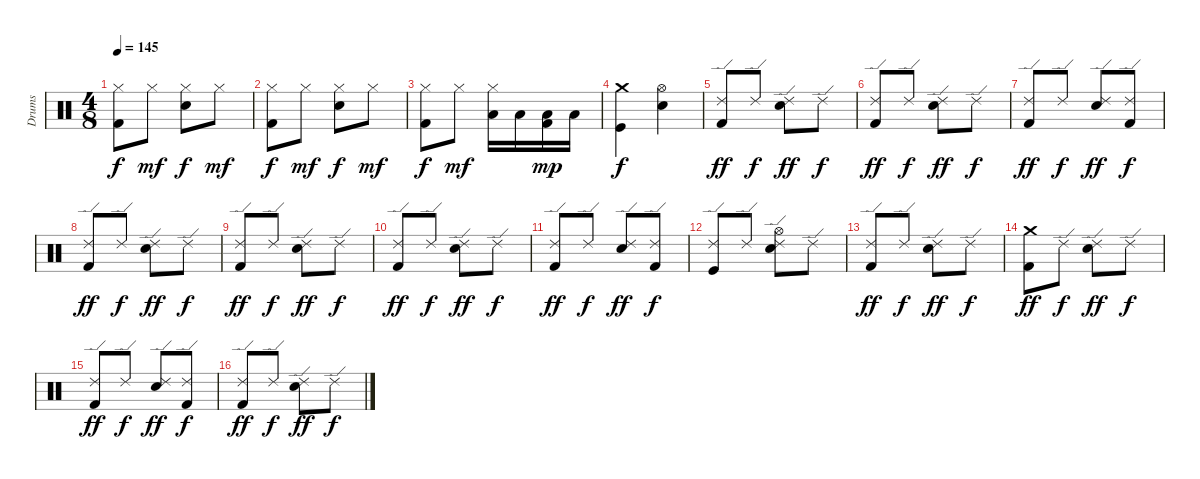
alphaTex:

\track ("Drums" "Drums") {instrument percussion}
\staff {score}
\articulation defaults
\ts (4 8)
\tempo 145
\clef neutral
\ks c
("Hi-Hat (closed)" "Kick (hit) 2").8{dy f} "Hi-Hat (closed)".8{dy mf} ("Hi-Hat (closed)" "Snare (hit) 2").8{dy f} "Hi-Hat (closed)".8{dy mf} |
("Hi-Hat (closed)" "Kick (hit) 2").8{dy f} "Hi-Hat (closed)".8{dy mf} ("Hi-Hat (closed)" "Snare (hit) 2").8{dy f} "Hi-Hat (closed)".8{dy mf} |
("Hi-Hat (closed)" "Kick (hit) 2").8{dy f} "Hi-Hat (closed)".8{dy mf} ("Low Tom (hit)" "Hi-Hat (closed)").16 "Low Tom (hit)".16 ("Low Floor Tom (hit)" "Kick (hit) 2").16{dy mp} "Low Floor Tom (hit)".16 |
("Crash medium (hit)" "Kick (hit)").4{dy f} ("Hi-Hat (open)" "Snare (hit) 2").4 |
("Ride (edge) 2" "Kick (hit) 2").8{dy ff} "Ride (edge) 2".8{dy f} ("Ride (edge) 2" "Snare (hit) 2").8{dy ff} "Ride (edge) 2".8{dy f} |
("Ride (edge) 2" "Kick (hit) 2").8{dy ff} "Ride (edge) 2".8{dy f} ("Ride (edge) 2" "Snare (hit) 2").8{dy ff} "Ride (edge) 2".8{dy f} |
("Ride (edge) 2" "Kick (hit) 2").8{dy ff} "Ride (edge) 2".8{dy f} ("Ride (edge) 2" "Snare (hit) 2").8{dy ff} ("Ride (edge) 2" "Kick (hit) 2").8{dy f} |
("Ride (edge) 2" "Kick (hit) 2").8{dy ff} "Ride (edge) 2".8{dy f} ("Ride (edge) 2" "Snare (hit) 2").8{dy ff} "Ride (edge) 2".8{dy f} |
("Ride (edge) 2" "Kick (hit) 2").8{dy ff} "Ride (edge) 2".8{dy f} ("Ride (edge) 2" "Snare (hit) 2").8{dy ff} "Ride (edge) 2".8{dy f} |
("Ride (edge) 2" "Kick (hit) 2").8{dy ff} "Ride (edge) 2".8{dy f} ("Ride (edge) 2" "Snare (hit) 2").8{dy ff} "Ride (edge) 2".8{dy f} |
("Ride (edge) 2" "Kick (hit) 2").8{dy ff} "Ride (edge) 2".8{dy f} ("Ride (edge) 2" "Snare (hit) 2").8{dy ff} ("Ride (edge) 2" "Kick (hit) 2").8{dy f} |
("Ride (edge) 2" "Kick (hit)").8 "Ride (edge) 2".8 ("Ride (edge) 2" "Hi-Hat (open)" "Snare (hit) 2").8 "Ride (edge) 2".8 |
("Ride (edge) 2" "Kick (hit) 2").8{dy ff} "Ride (edge) 2".8{dy f} ("Ride (edge) 2" "Snare (hit) 2").8{dy ff} "Ride (edge) 2".8{dy f} |
("Crash medium (hit)" "Kick (hit) 2").8{dy ff} "Ride (edge) 2".8{dy f} ("Ride (edge) 2" "Snare (hit) 2").8{dy ff} "Ride (edge) 2".8{dy f} |
("Ride (edge) 2" "Kick (hit) 2").8{dy ff} "Ride (edge) 2".8{dy f} ("Ride (edge) 2" "Snare (hit) 2").8{dy ff} ("Ride (edge) 2" "Kick (hit) 2").8{dy f} |
("Ride (edge) 2" "Kick (hit) 2").8{dy ff} "Ride (edge) 2".8{dy f} ("Ride (edge) 2" "Snare (hit) 2").8{dy ff} "Ride (edge) 2".8{dy f}
